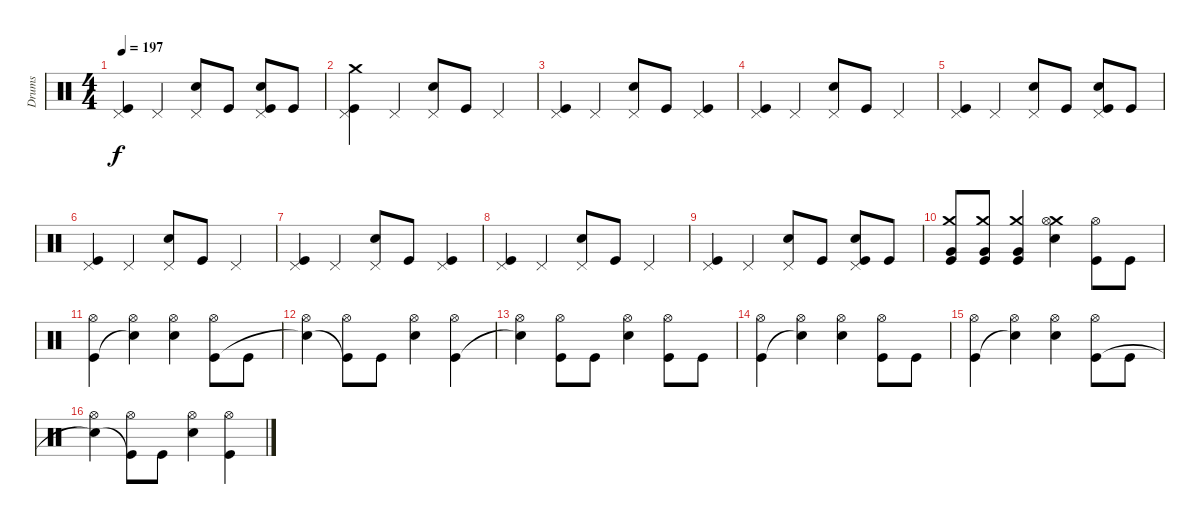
\track ("Drums" "Drums") {instrument percussion}
\staff {score}
\articulation defaults
\ts (4 4)
\tempo 197
\clef neutral
\ks c
("Pedal Hi-Hat (hit)" "Kick (hit)").4{dy f} "Pedal Hi-Hat (hit)".4 ("Pedal Hi-Hat (hit)" "Snare (hit) 2").8 "Kick (hit)".8 ("Pedal Hi-Hat (hit)" "Snare (hit) 2" "Kick (hit)").8 "Kick (hit)".8 |
("Crash medium (hit)" "Pedal Hi-Hat (hit)" "Kick (hit)").4{volume 16} "Pedal Hi-Hat (hit)".4 ("Pedal Hi-Hat (hit)" "Snare (hit) 2").8 "Kick (hit)".8 "Pedal Hi-Hat (hit)".4 |
("Pedal Hi-Hat (hit)" "Kick (hit)").4 "Pedal Hi-Hat (hit)".4 ("Pedal Hi-Hat (hit)" "Snare (hit) 2").8 "Kick (hit)".8 ("Pedal Hi-Hat (hit)" "Kick (hit)").4 |
("Pedal Hi-Hat (hit)" "Kick (hit)").4 "Pedal Hi-Hat (hit)".4 ("Pedal Hi-Hat (hit)" "Snare (hit) 2").8 "Kick (hit)".8 "Pedal Hi-Hat (hit)".4 |
("Pedal Hi-Hat (hit)" "Kick (hit)").4 "Pedal Hi-Hat (hit)".4 ("Pedal Hi-Hat (hit)" "Snare (hit) 2").8 "Kick (hit)".8 ("Pedal Hi-Hat (hit)" "Snare (hit) 2" "Kick (hit)").8 "Kick (hit)".8 |
("Pedal Hi-Hat (hit)" "Kick (hit)").4 "Pedal Hi-Hat (hit)".4 ("Pedal Hi-Hat (hit)" "Snare (hit) 2").8 "Kick (hit)".8 "Pedal Hi-Hat (hit)".4 |
("Pedal Hi-Hat (hit)" "Kick (hit)").4 "Pedal Hi-Hat (hit)".4 ("Pedal Hi-Hat (hit)" "Snare (hit) 2").8 "Kick (hit)".8 ("Pedal Hi-Hat (hit)" "Kick (hit)").4 |
("Pedal Hi-Hat (hit)" "Kick (hit)").4 "Pedal Hi-Hat (hit)".4 ("Pedal Hi-Hat (hit)" "Snare (hit) 2").8 "Kick (hit)".8 "Pedal Hi-Hat (hit)".4 |
("Pedal Hi-Hat (hit)" "Kick (hit)").4 "Pedal Hi-Hat (hit)".4 ("Pedal Hi-Hat (hit)" "Snare (hit) 2").8 "Kick (hit)".8 ("Pedal Hi-Hat (hit)" "Snare (hit) 2" "Kick (hit)").8 "Kick (hit)".8 |
("Crash medium (hit)" "Very Low Tom (hit)" "Kick (hit)").8 ("Crash medium (hit)" "Very Low Tom (hit)" "Kick (hit)").8 ("Crash medium (hit)" "Very Low Tom (hit)" "Kick (hit)").4 ("Crash medium (hit)" "Hi-Hat (open)" "Snare (hit) 2").4 ("Hi-Hat (open)" "Kick (hit)").8 "Kick (hit)".8 |
("Hi-Hat (open)" "Kick (hit)").4 ("Hi-Hat (open)" "Snare (hit)"{t}).4 ("Hi-Hat (open)" "Snare (hit) 2").4 ("Hi-Hat (open)" "Kick (hit)").8 "Kick (hit)".8 |
("Hi-Hat (open)" "Snare (hit)"{t}).4 ("Hi-Hat (open)" "Kick (hit)"{t}).8 "Kick (hit)".8 ("Hi-Hat (open)" "Snare (hit) 2").4 ("Hi-Hat (open)" "Kick (hit)").4 |
("Hi-Hat (open)" "Snare (hit)"{t}).4 ("Hi-Hat (open)" "Kick (hit)").8 "Kick (hit)".8 ("Hi-Hat (open)" "Snare (hit) 2").4 ("Hi-Hat (open)" "Kick (hit)").8 "Kick (hit)".8 |
("Hi-Hat (open)" "Kick (hit)").4 ("Hi-Hat (open)" "Snare (hit)"{t}).4 ("Hi-Hat (open)" "Snare (hit) 2").4 ("Hi-Hat (open)" "Kick (hit)").8 "Kick (hit)".8 |
("Hi-Hat (open)" "Kick (hit)").4 ("Hi-Hat (open)" "Snare (hit)"{t}).4 ("Hi-Hat (open)" "Snare (hit) 2").4 ("Hi-Hat (open)" "Kick (hit)").8 "Kick (hit)".8 |
("Hi-Hat (open)" "Snare (hit)"{t}).4 ("Hi-Hat (open)" "Kick (hit)"{t}).8 "Kick (hit)".8 ("Hi-Hat (open)" "Snare (hit) 2").4 ("Hi-Hat (open)" "Kick (hit)").4
